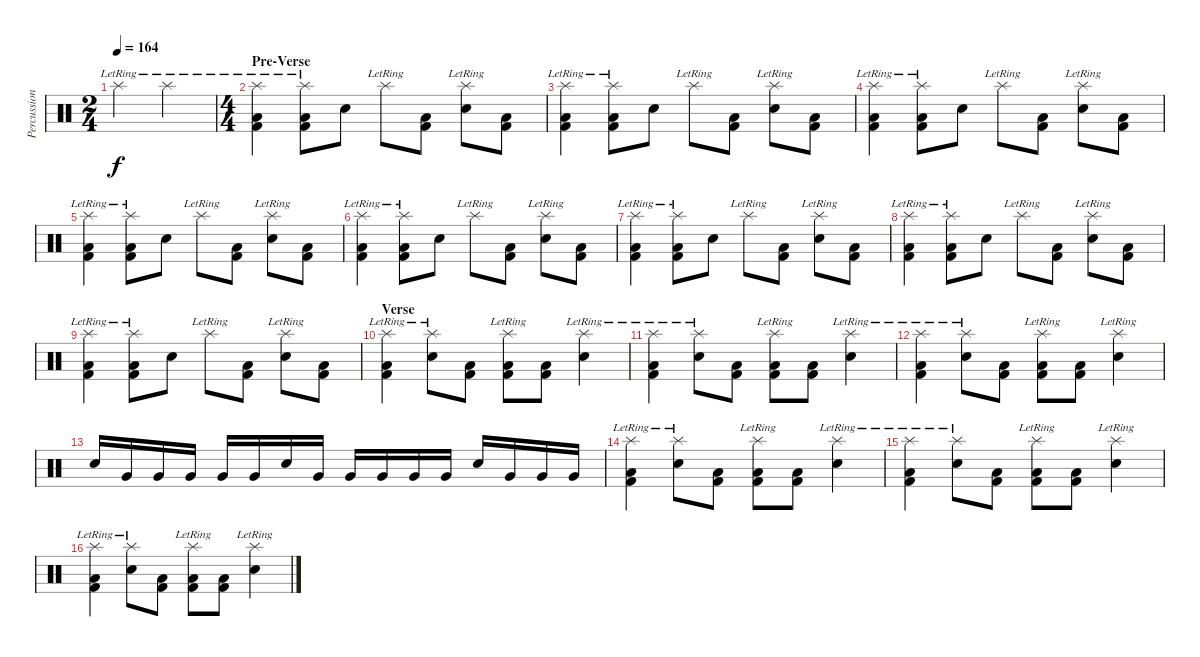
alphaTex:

\track ("Percussion" "Percussion") {instrument percussion}
\staff {score}
\articulation defaults
\ts (2 4)
\tempo 164
\clef neutral
\ks c "Splash (hit)"{lr}.4{dy f} "Splash (hit)"{lr}.4
|
\ts (4 4)
\section ("" "Pre-Verse")
("Splash (hit)"{lr} "Low Floor Tom (hit)" "Kick (hit) 2").4 ("Splash (hit)"{lr} "Low Floor Tom (hit)" "Kick (hit) 2").8 "Snare (hit) 2".8 "Splash (hit)"{lr}.8 ("Low Floor Tom (hit)" "Kick (hit) 2").8 ("Splash (hit)"{lr} "Snare (hit) 2").8 ("Low Floor Tom (hit)" "Kick (hit) 2").8 |
("Splash (hit)"{lr} "Low Floor Tom (hit)" "Kick (hit) 2").4 ("Splash (hit)"{lr} "Low Floor Tom (hit)" "Kick (hit) 2").8 "Snare (hit) 2".8 "Splash (hit)"{lr}.8 ("Low Floor Tom (hit)" "Kick (hit) 2").8 ("Splash (hit)"{lr} "Snare (hit) 2").8 ("Low Floor Tom (hit)" "Kick (hit) 2").8 |
("Splash (hit)"{lr} "Low Floor Tom (hit)" "Kick (hit) 2").4 ("Splash (hit)"{lr} "Low Floor Tom (hit)" "Kick (hit) 2").8 "Snare (hit) 2".8 "Splash (hit)"{lr}.8 ("Low Floor Tom (hit)" "Kick (hit) 2").8 ("Splash (hit)"{lr} "Snare (hit) 2").8 ("Low Floor Tom (hit)" "Kick (hit) 2").8 |
("Splash (hit)"{lr} "Low Floor Tom (hit)" "Kick (hit) 2").4 ("Splash (hit)"{lr} "Low Floor Tom (hit)" "Kick (hit) 2").8 "Snare (hit) 2".8 "Splash (hit)"{lr}.8 ("Low Floor Tom (hit)" "Kick (hit) 2").8 ("Splash (hit)"{lr} "Snare (hit) 2").8 ("Low Floor Tom (hit)" "Kick (hit) 2").8 |
("Splash (hit)"{lr} "Low Floor Tom (hit)" "Kick (hit) 2").4 ("Splash (hit)"{lr} "Low Floor Tom (hit)" "Kick (hit) 2").8 "Snare (hit) 2".8 "Splash (hit)"{lr}.8 ("Low Floor Tom (hit)" "Kick (hit) 2").8 ("Splash (hit)"{lr} "Snare (hit) 2").8 ("Low Floor Tom (hit)" "Kick (hit) 2").8 |
("Splash (hit)"{lr} "Low Floor Tom (hit)" "Kick (hit) 2").4 ("Splash (hit)"{lr} "Low Floor Tom (hit)" "Kick (hit) 2").8 "Snare (hit) 2".8 "Splash (hit)"{lr}.8 ("Low Floor Tom (hit)" "Kick (hit) 2").8 ("Splash (hit)"{lr} "Snare (hit) 2").8 ("Low Floor Tom (hit)" "Kick (hit) 2").8 |
("Splash (hit)"{lr} "Low Floor Tom (hit)" "Kick (hit) 2").4 ("Splash (hit)"{lr} "Low Floor Tom (hit)" "Kick (hit) 2").8 "Snare (hit) 2".8 "Splash (hit)"{lr}.8 ("Low Floor Tom (hit)" "Kick (hit) 2").8 ("Splash (hit)"{lr} "Snare (hit) 2").8 ("Low Floor Tom (hit)" "Kick (hit) 2").8 |
("Splash (hit)"{lr} "Low Floor Tom (hit)" "Kick (hit) 2").4 ("Splash (hit)"{lr} "Low Floor Tom (hit)" "Kick (hit) 2").8 "Snare (hit) 2".8 "Splash (hit)"{lr}.8 ("Low Floor Tom (hit)" "Kick (hit) 2").8 ("Splash (hit)"{lr} "Snare (hit) 2").8 ("Low Floor Tom (hit)" "Kick (hit) 2").8 |
\section ("" "Verse")
("Splash (hit)"{lr} "Low Floor Tom (hit)" "Kick (hit) 2").4 ("Splash (hit)"{lr} "Snare (hit) 2").8 ("Low Floor Tom (hit)" "Kick (hit) 2").8 ("Splash (hit)"{lr} "Low Floor Tom (hit)" "Kick (hit) 2").8 ("Low Floor Tom (hit)" "Kick (hit) 2").8 ("Splash (hit)"{lr} "Snare (hit) 2").4 |
("Splash (hit)"{lr} "Low Floor Tom (hit)" "Kick (hit) 2").4 ("Splash (hit)"{lr} "Snare (hit) 2").8 ("Low Floor Tom (hit)" "Kick (hit) 2").8 ("Splash (hit)"{lr} "Low Floor Tom (hit)" "Kick (hit) 2").8 ("Low Floor Tom (hit)" "Kick (hit) 2").8 ("Splash (hit)"{lr} "Snare (hit) 2").4 |
("Splash (hit)"{lr} "Low Floor Tom (hit)" "Kick (hit) 2").4 ("Splash (hit)"{lr} "Snare (hit) 2").8 ("Low Floor Tom (hit)" "Kick (hit) 2").8 ("Splash (hit)"{lr} "Low Floor Tom (hit)" "Kick (hit) 2").8 ("Low Floor Tom (hit)" "Kick (hit) 2").8 ("Splash (hit)"{lr} "Snare (hit) 2").4 |
"Snare (hit) 2".16 "Very Low Tom (hit)".16 "Very Low Tom (hit)".16 "Very Low Tom (hit)".16 "Very Low Tom (hit)".16 "Very Low Tom (hit)".16 "Snare (hit) 2".16 "Very Low Tom (hit)".16 "Very Low Tom (hit)".16 "Very Low Tom (hit)".16 "Very Low Tom (hit)".16 "Very Low Tom (hit)".16 "Snare (hit) 2".16 "Very Low Tom (hit)".16 "Very Low Tom (hit)".16 "Very Low Tom (hit)".16 |
("Splash (hit)"{lr} "Low Floor Tom (hit)" "Kick (hit) 2").4 ("Splash (hit)"{lr} "Snare (hit) 2").8 ("Low Floor Tom (hit)" "Kick (hit) 2").8 ("Splash (hit)"{lr} "Low Floor Tom (hit)" "Kick (hit) 2").8 ("Low Floor Tom (hit)" "Kick (hit) 2").8 ("Splash (hit)"{lr} "Snare (hit) 2").4 |
("Splash (hit)"{lr} "Low Floor Tom (hit)" "Kick (hit) 2").4 ("Splash (hit)"{lr} "Snare (hit) 2").8 ("Low Floor Tom (hit)" "Kick (hit) 2").8 ("Splash (hit)"{lr} "Low Floor Tom (hit)" "Kick (hit) 2").8 ("Low Floor Tom (hit)" "Kick (hit) 2").8 ("Splash (hit)"{lr} "Snare (hit) 2").4 |
("Splash (hit)"{lr} "Low Floor Tom (hit)" "Kick (hit) 2").4 ("Splash (hit)"{lr} "Snare (hit) 2").8 ("Low Floor Tom (hit)" "Kick (hit) 2").8 ("Splash (hit)"{lr} "Low Floor Tom (hit)" "Kick (hit) 2").8 ("Low Floor Tom (hit)" "Kick (hit) 2").8 ("Splash (hit)"{lr} "Snare (hit) 2").4
